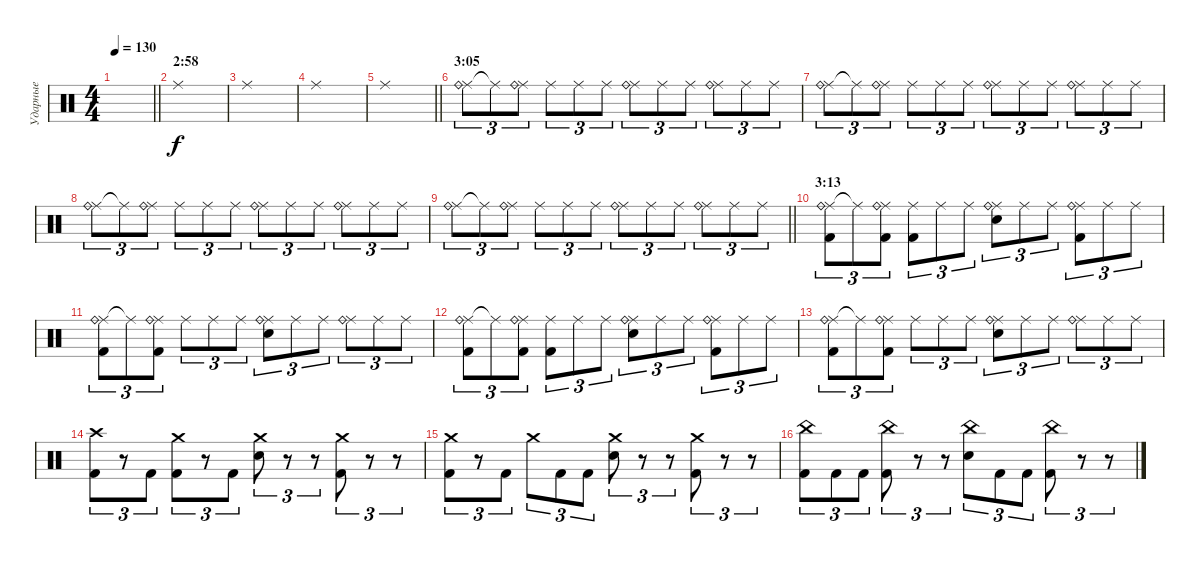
\track ("Ударные" "Ударные") {instrument percussion}
\staff {score}
\articulation defaults
\ts (4 4)
\tempo 130
\clef neutral
\barLineRight lightlight
\ks c
|
\section ("" "2:58")
"Ride (middle)".1 |
"Ride (middle)".1 |
"Ride (middle)".1 |
\barLineRight lightlight "Ride (middle)".1
|
\section ("" "3:05")
("Ride (middle)" "Ride (bell)").8{tu (3 2)} "Ride (middle)"{t}.8{tu (3 2)} ("Ride (middle)" "Ride (bell)").8{tu (3 2)} "Ride (middle)".8{tu (3 2)} "Ride (middle)".8{tu (3 2)} "Ride (middle)".8{tu (3 2)} ("Ride (middle)" "Ride (bell)").8{tu (3 2)} "Ride (middle)".8{tu (3 2)} "Ride (middle)".8{tu (3 2)} ("Ride (middle)" "Ride (bell)").8{tu (3 2)} "Ride (middle)".8{tu (3 2)} "Ride (middle)".8{tu (3 2)} |
("Ride (middle)" "Ride (bell)").8{tu (3 2)} "Ride (middle)"{t}.8{tu (3 2)} ("Ride (middle)" "Ride (bell)").8{tu (3 2)} "Ride (middle)".8{tu (3 2)} "Ride (middle)".8{tu (3 2)} "Ride (middle)".8{tu (3 2)} ("Ride (middle)" "Ride (bell)").8{tu (3 2)} "Ride (middle)".8{tu (3 2)} "Ride (middle)".8{tu (3 2)} ("Ride (middle)" "Ride (bell)").8{tu (3 2)} "Ride (middle)".8{tu (3 2)} "Ride (middle)".8{tu (3 2)} |
("Ride (middle)" "Ride (bell)").8{tu (3 2)} "Ride (middle)"{t}.8{tu (3 2)} ("Ride (middle)" "Ride (bell)").8{tu (3 2)} "Ride (middle)".8{tu (3 2)} "Ride (middle)".8{tu (3 2)} "Ride (middle)".8{tu (3 2)} ("Ride (middle)" "Ride (bell)").8{tu (3 2)} "Ride (middle)".8{tu (3 2)} "Ride (middle)".8{tu (3 2)} ("Ride (middle)" "Ride (bell)").8{tu (3 2)} "Ride (middle)".8{tu (3 2)} "Ride (middle)".8{tu (3 2)} |
\barLineRight lightlight
("Ride (middle)" "Ride (bell)").8{tu (3 2)} "Ride (middle)"{t}.8{tu (3 2)} ("Ride (middle)" "Ride (bell)").8{tu (3 2)} "Ride (middle)".8{tu (3 2)} "Ride (middle)".8{tu (3 2)} "Ride (middle)".8{tu (3 2)} ("Ride (middle)" "Ride (bell)").8{tu (3 2)} "Ride (middle)".8{tu (3 2)} "Ride (middle)".8{tu (3 2)} ("Ride (middle)" "Ride (bell)").8{tu (3 2)} "Ride (middle)".8{tu (3 2)} "Ride (middle)".8{tu (3 2)} |
\section ("" "3:13")
("Ride (middle)" "Ride (bell)" "Kick (hit) 2").8{tu (3 2)} "Ride (middle)"{t}.8{tu (3 2)} ("Ride (middle)" "Ride (bell)" "Kick (hit) 2").8{tu (3 2)} ("Ride (middle)" "Kick (hit) 2").8{tu (3 2)} "Ride (middle)".8{tu (3 2)} "Ride (middle)".8{tu (3 2)} ("Ride (middle)" "Ride (bell)" "Electric Snare (hit)").8{tu (3 2)} "Ride (middle)".8{tu (3 2)} "Ride (middle)".8{tu (3 2)} ("Ride (middle)" "Ride (bell)" "Kick (hit) 2").8{tu (3 2)} "Ride (middle)".8{tu (3 2)} "Ride (middle)".8{tu (3 2)} |
("Ride (middle)" "Ride (bell)" "Kick (hit) 2").8{tu (3 2)} "Ride (middle)"{t}.8{tu (3 2)} ("Ride (middle)" "Ride (bell)" "Kick (hit) 2").8{tu (3 2)} "Ride (middle)".8{tu (3 2)} "Ride (middle)".8{tu (3 2)} "Ride (middle)".8{tu (3 2)} ("Ride (middle)" "Ride (bell)" "Electric Snare (hit)").8{tu (3 2)} "Ride (middle)".8{tu (3 2)} "Ride (middle)".8{tu (3 2)} ("Ride (middle)" "Ride (bell)").8{tu (3 2)} "Ride (middle)".8{tu (3 2)} "Ride (middle)".8{tu (3 2)} |
("Ride (middle)" "Ride (bell)" "Kick (hit) 2").8{tu (3 2)} "Ride (middle)"{t}.8{tu (3 2)} ("Ride (middle)" "Ride (bell)" "Kick (hit) 2").8{tu (3 2)} ("Ride (middle)" "Kick (hit) 2").8{tu (3 2)} "Ride (middle)".8{tu (3 2)} "Ride (middle)".8{tu (3 2)} ("Ride (middle)" "Ride (bell)" "Electric Snare (hit)").8{tu (3 2)} "Ride (middle)".8{tu (3 2)} "Ride (middle)".8{tu (3 2)} ("Ride (middle)" "Ride (bell)" "Kick (hit) 2").8{tu (3 2)} "Ride (middle)".8{tu (3 2)} "Ride (middle)".8{tu (3 2)} |
("Ride (middle)" "Ride (bell)" "Kick (hit) 2").8{tu (3 2)} "Ride (middle)"{t}.8{tu (3 2)} ("Ride (middle)" "Ride (bell)" "Kick (hit) 2").8{tu (3 2)} "Ride (middle)".8{tu (3 2)} "Ride (middle)".8{tu (3 2)} "Ride (middle)".8{tu (3 2)} ("Ride (middle)" "Ride (bell)" "Electric Snare (hit)").8{tu (3 2)} "Ride (middle)".8{tu (3 2)} "Ride (middle)".8{tu (3 2)} ("Ride (middle)" "Ride (bell)").8{tu (3 2)} "Ride (middle)".8{tu (3 2)} "Ride (middle)".8{tu (3 2)} |
("Crash high (hit)" "Kick (hit) 2").8{tu (3 2)} r.8{tu (3 2)} "Kick (hit) 2".8{tu (3 2)} ("Crash medium (hit)" "Kick (hit) 2").8{tu (3 2)} r.8{tu (3 2)} "Kick (hit) 2".8{tu (3 2)} ("Crash medium (hit)" "Electric Snare (hit)").8{tu (3 2)} r.8{tu (3 2)} r.8{tu (3 2)} ("Crash medium (hit)" "Kick (hit) 2").8{tu (3 2)} r.8{tu (3 2)} r.8{tu (3 2)} |
("Crash medium (hit)" "Kick (hit) 2").8{tu (3 2)} r.8{tu (3 2)} "Kick (hit) 2".8{tu (3 2)} "Crash medium (hit)".8{tu (3 2)} "Kick (hit) 2".8{tu (3 2)} "Kick (hit) 2".8{tu (3 2)} ("Crash medium (hit)" "Electric Snare (hit)").8{tu (3 2)} r.8{tu (3 2)} r.8{tu (3 2)} ("Crash medium (hit)" "Kick (hit) 2").8{tu (3 2)} r.8{tu (3 2)} r.8{tu (3 2)} |
("China (hit)" "Kick (hit) 2").8{tu (3 2)} "Kick (hit) 2".8{tu (3 2)} "Kick (hit) 2".8{tu (3 2)} ("China (hit)" "Kick (hit) 2").8{tu (3 2)} r.8{tu (3 2)} r.8{tu (3 2)} ("China (hit)" "Electric Snare (hit)").8{tu (3 2)} "Kick (hit) 2".8{tu (3 2)} "Kick (hit) 2".8{tu (3 2)} ("China (hit)" "Kick (hit) 2").8{tu (3 2)} r.8{tu (3 2)} r.8{tu (3 2)}
